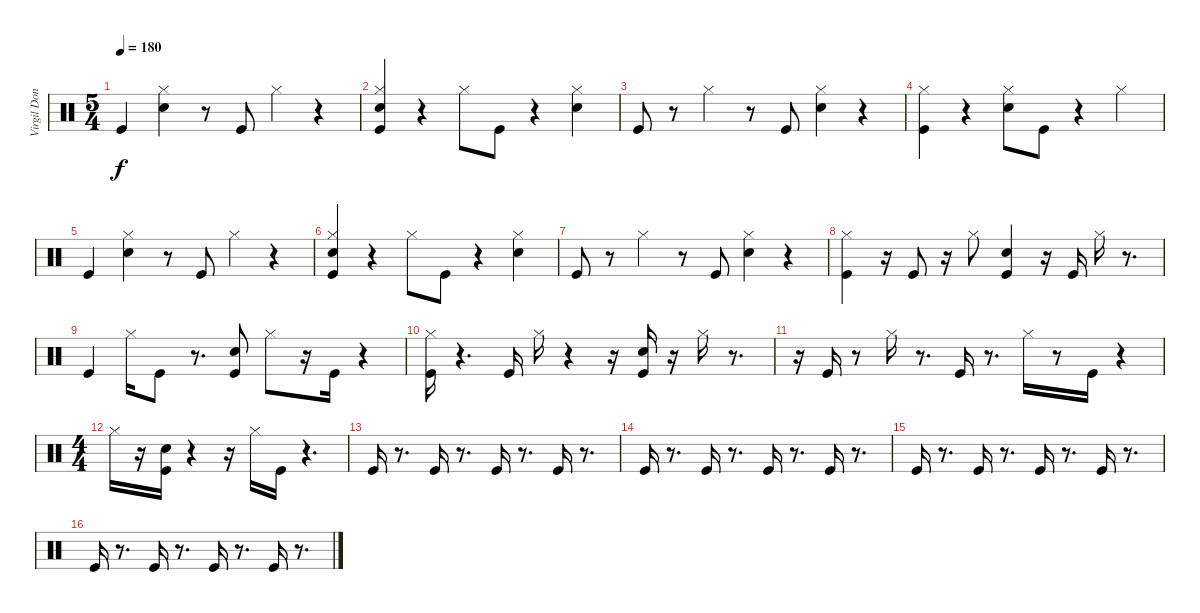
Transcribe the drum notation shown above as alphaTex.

\track ("Virgil Donati" "Virgil Don") {instrument percussion}
\staff {score}
\articulation defaults
\ts (5 4)
\tempo 180
\clef neutral
\ks c "Kick (hit)".4{dy f}
("Hi-Hat (closed)" "Snare (hit) 2").4 r.8 "Kick (hit)".8 "Hi-Hat (closed)".4 r.4 |
("Hi-Hat (closed)" "Snare (hit) 2" "Kick (hit)").4 r.4 "Hi-Hat (closed)".8 "Kick (hit)".8 r.4 ("Hi-Hat (closed)" "Snare (hit) 2").4 |
"Kick (hit)".8 r.8 "Hi-Hat (closed)".4 r.8 "Kick (hit)".8 ("Hi-Hat (closed)" "Snare (hit) 2").4 r.4 |
("Hi-Hat (closed)" "Kick (hit)").4 r.4 ("Hi-Hat (closed)" "Snare (hit) 2").8 "Kick (hit)".8 r.4 "Hi-Hat (closed)".4 |
"Kick (hit)".4 ("Hi-Hat (closed)" "Snare (hit) 2").4 r.8 "Kick (hit)".8 "Hi-Hat (closed)".4 r.4 |
("Hi-Hat (closed)" "Snare (hit) 2" "Kick (hit)").4 r.4 "Hi-Hat (closed)".8 "Kick (hit)".8 r.4 ("Hi-Hat (closed)" "Snare (hit) 2").4 |
"Kick (hit)".8 r.8 "Hi-Hat (closed)".4 r.8 "Kick (hit)".8 ("Hi-Hat (closed)" "Snare (hit) 2").4 r.4 |
("Hi-Hat (closed)" "Kick (hit)").4 r.16 "Kick (hit)".8 r.16 "Hi-Hat (closed)".8 ("Snare (hit) 2" "Kick (hit)").4 r.16 "Kick (hit)".16 "Hi-Hat (closed)".16 r.8{d} |
"Kick (hit)".4 "Hi-Hat (closed)".16 "Kick (hit)".8 r.8{d} ("Snare (hit) 2" "Kick (hit)").8 "Hi-Hat (closed)".8 r.16 "Kick (hit)".16 r.4 |
("Hi-Hat (closed)" "Kick (hit)").16 r.4{d} "Kick (hit)".16 "Hi-Hat (closed)".16 r.4 r.16 ("Snare (hit) 2" "Kick (hit)").16 r.16 "Hi-Hat (closed)".16 r.8{d} |
r.16 "Kick (hit)".16 r.8 "Hi-Hat (closed)".16 r.8{d} "Kick (hit)".16 r.8{d} "Hi-Hat (closed)".16 r.8 "Kick (hit)".16 r.4 |
\ts (4 4)
"Hi-Hat (closed)".16 r.16 ("Snare (hit) 2" "Kick (hit)").16 r.4 r.16 "Hi-Hat (closed)".16 "Kick (hit)".16 r.4{d} |
"Kick (hit)".16 r.8{d} "Kick (hit)".16 r.8{d} "Kick (hit)".16 r.8{d} "Kick (hit)".16 r.8{d} |
"Kick (hit)".16 r.8{d} "Kick (hit)".16 r.8{d} "Kick (hit)".16 r.8{d} "Kick (hit)".16 r.8{d} |
"Kick (hit)".16 r.8{d} "Kick (hit)".16 r.8{d} "Kick (hit)".16 r.8{d} "Kick (hit)".16 r.8{d} |
"Kick (hit)".16 r.8{d} "Kick (hit)".16 r.8{d} "Kick (hit)".16 r.8{d} "Kick (hit)".16 r.8{d}
